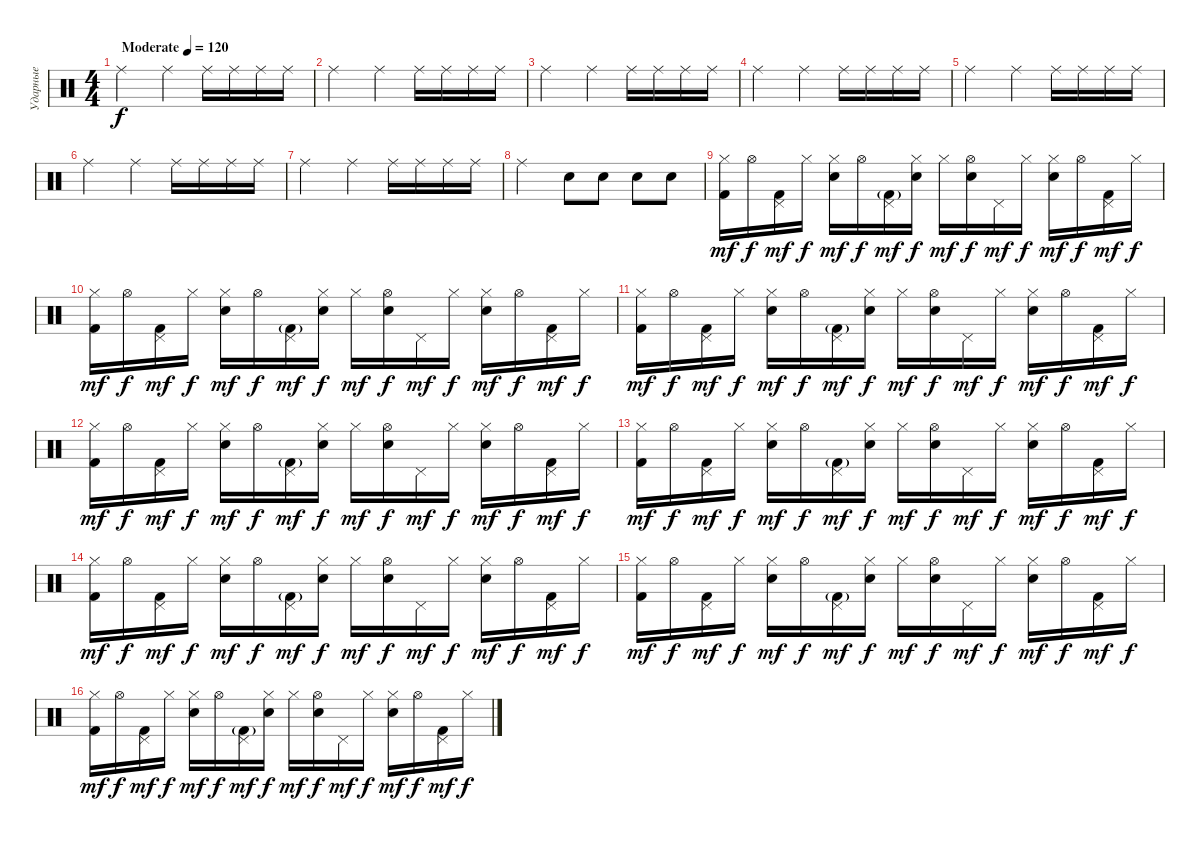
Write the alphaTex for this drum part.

\track ("Ударные" "Ударные") {instrument percussion}
\staff {score}
\articulation defaults
\ts (4 4)
\tempo (120 "Moderate")
\clef neutral
\ks c "Ride (middle)".2{dy f} "Ride (middle)".4 "Ride (middle)".16 "Ride (middle)".16 "Ride (middle)".16 "Ride (middle)".16
|
"Ride (middle)".2 "Ride (middle)".4 "Ride (middle)".16 "Ride (middle)".16 "Ride (middle)".16 "Ride (middle)".16 |
"Ride (middle)".2 "Ride (middle)".4 "Ride (middle)".16 "Ride (middle)".16 "Ride (middle)".16 "Ride (middle)".16 |
"Ride (middle)".2 "Ride (middle)".4 "Ride (middle)".16 "Ride (middle)".16 "Ride (middle)".16 "Ride (middle)".16 |
"Ride (middle)".2 "Ride (middle)".4 "Ride (middle)".16 "Ride (middle)".16 "Ride (middle)".16 "Ride (middle)".16 |
"Ride (middle)".2 "Ride (middle)".4 "Ride (middle)".16 "Ride (middle)".16 "Ride (middle)".16 "Ride (middle)".16 |
"Ride (middle)".2 "Ride (middle)".4 "Ride (middle)".16 "Ride (middle)".16 "Ride (middle)".16 "Ride (middle)".16 |
"Ride (middle)".2 "Snare (hit) 2".8 "Snare (hit) 2".8 "Snare (hit) 2".8 "Snare (hit) 2".8 |
("Kick (hit) 2" "Hi-Hat (closed)").16{dy mf} "Hi-Hat (open)".16{dy f} ("Kick (hit) 2" "Pedal Hi-Hat (hit)").16{dy mf} "Hi-Hat (closed)".16{dy f} ("Snare (hit) 2" "Hi-Hat (closed)").16{dy mf} "Hi-Hat (open)".16{dy f} ("Kick (hit) 2"{g} "Pedal Hi-Hat (hit)").16{dy mf} ("Snare (hit) 2" "Hi-Hat (closed)").16{dy f} "Hi-Hat (closed)".16{dy mf} ("Snare (hit) 2" "Hi-Hat (open)").16{dy f} "Pedal Hi-Hat (hit)".16{dy mf} "Hi-Hat (closed)".16{dy f} ("Snare (hit) 2" "Hi-Hat (closed)").16{dy mf} "Hi-Hat (open)".16{dy f} ("Kick (hit) 2" "Pedal Hi-Hat (hit)").16{dy mf} "Hi-Hat (closed)".16{dy f} |
("Kick (hit) 2" "Hi-Hat (closed)").16{dy mf} "Hi-Hat (open)".16{dy f} ("Kick (hit) 2" "Pedal Hi-Hat (hit)").16{dy mf} "Hi-Hat (closed)".16{dy f} ("Snare (hit) 2" "Hi-Hat (closed)").16{dy mf} "Hi-Hat (open)".16{dy f} ("Kick (hit) 2"{g} "Pedal Hi-Hat (hit)").16{dy mf} ("Snare (hit) 2" "Hi-Hat (closed)").16{dy f} "Hi-Hat (closed)".16{dy mf} ("Snare (hit) 2" "Hi-Hat (open)").16{dy f} "Pedal Hi-Hat (hit)".16{dy mf} "Hi-Hat (closed)".16{dy f} ("Snare (hit) 2" "Hi-Hat (closed)").16{dy mf} "Hi-Hat (open)".16{dy f} ("Kick (hit) 2" "Pedal Hi-Hat (hit)").16{dy mf} "Hi-Hat (closed)".16{dy f} |
("Kick (hit) 2" "Hi-Hat (closed)").16{dy mf} "Hi-Hat (open)".16{dy f} ("Kick (hit) 2" "Pedal Hi-Hat (hit)").16{dy mf} "Hi-Hat (closed)".16{dy f} ("Snare (hit) 2" "Hi-Hat (closed)").16{dy mf} "Hi-Hat (open)".16{dy f} ("Kick (hit) 2"{g} "Pedal Hi-Hat (hit)").16{dy mf} ("Snare (hit) 2" "Hi-Hat (closed)").16{dy f} "Hi-Hat (closed)".16{dy mf} ("Snare (hit) 2" "Hi-Hat (open)").16{dy f} "Pedal Hi-Hat (hit)".16{dy mf} "Hi-Hat (closed)".16{dy f} ("Snare (hit) 2" "Hi-Hat (closed)").16{dy mf} "Hi-Hat (open)".16{dy f} ("Kick (hit) 2" "Pedal Hi-Hat (hit)").16{dy mf} "Hi-Hat (closed)".16{dy f} |
("Kick (hit) 2" "Hi-Hat (closed)").16{dy mf} "Hi-Hat (open)".16{dy f} ("Kick (hit) 2" "Pedal Hi-Hat (hit)").16{dy mf} "Hi-Hat (closed)".16{dy f} ("Snare (hit) 2" "Hi-Hat (closed)").16{dy mf} "Hi-Hat (open)".16{dy f} ("Kick (hit) 2"{g} "Pedal Hi-Hat (hit)").16{dy mf} ("Snare (hit) 2" "Hi-Hat (closed)").16{dy f} "Hi-Hat (closed)".16{dy mf} ("Snare (hit) 2" "Hi-Hat (open)").16{dy f} "Pedal Hi-Hat (hit)".16{dy mf} "Hi-Hat (closed)".16{dy f} ("Snare (hit) 2" "Hi-Hat (closed)").16{dy mf} "Hi-Hat (open)".16{dy f} ("Kick (hit) 2" "Pedal Hi-Hat (hit)").16{dy mf} "Hi-Hat (closed)".16{dy f} |
("Kick (hit) 2" "Hi-Hat (closed)").16{dy mf} "Hi-Hat (open)".16{dy f} ("Kick (hit) 2" "Pedal Hi-Hat (hit)").16{dy mf} "Hi-Hat (closed)".16{dy f} ("Snare (hit) 2" "Hi-Hat (closed)").16{dy mf} "Hi-Hat (open)".16{dy f} ("Kick (hit) 2"{g} "Pedal Hi-Hat (hit)").16{dy mf} ("Snare (hit) 2" "Hi-Hat (closed)").16{dy f} "Hi-Hat (closed)".16{dy mf} ("Snare (hit) 2" "Hi-Hat (open)").16{dy f} "Pedal Hi-Hat (hit)".16{dy mf} "Hi-Hat (closed)".16{dy f} ("Snare (hit) 2" "Hi-Hat (closed)").16{dy mf} "Hi-Hat (open)".16{dy f} ("Kick (hit) 2" "Pedal Hi-Hat (hit)").16{dy mf} "Hi-Hat (closed)".16{dy f} |
("Kick (hit) 2" "Hi-Hat (closed)").16{dy mf} "Hi-Hat (open)".16{dy f} ("Kick (hit) 2" "Pedal Hi-Hat (hit)").16{dy mf} "Hi-Hat (closed)".16{dy f} ("Snare (hit) 2" "Hi-Hat (closed)").16{dy mf} "Hi-Hat (open)".16{dy f} ("Kick (hit) 2"{g} "Pedal Hi-Hat (hit)").16{dy mf} ("Snare (hit) 2" "Hi-Hat (closed)").16{dy f} "Hi-Hat (closed)".16{dy mf} ("Snare (hit) 2" "Hi-Hat (open)").16{dy f} "Pedal Hi-Hat (hit)".16{dy mf} "Hi-Hat (closed)".16{dy f} ("Snare (hit) 2" "Hi-Hat (closed)").16{dy mf} "Hi-Hat (open)".16{dy f} ("Kick (hit) 2" "Pedal Hi-Hat (hit)").16{dy mf} "Hi-Hat (closed)".16{dy f} |
("Kick (hit) 2" "Hi-Hat (closed)").16{dy mf} "Hi-Hat (open)".16{dy f} ("Kick (hit) 2" "Pedal Hi-Hat (hit)").16{dy mf} "Hi-Hat (closed)".16{dy f} ("Snare (hit) 2" "Hi-Hat (closed)").16{dy mf} "Hi-Hat (open)".16{dy f} ("Kick (hit) 2"{g} "Pedal Hi-Hat (hit)").16{dy mf} ("Snare (hit) 2" "Hi-Hat (closed)").16{dy f} "Hi-Hat (closed)".16{dy mf} ("Snare (hit) 2" "Hi-Hat (open)").16{dy f} "Pedal Hi-Hat (hit)".16{dy mf} "Hi-Hat (closed)".16{dy f} ("Snare (hit) 2" "Hi-Hat (closed)").16{dy mf} "Hi-Hat (open)".16{dy f} ("Kick (hit) 2" "Pedal Hi-Hat (hit)").16{dy mf} "Hi-Hat (closed)".16{dy f} |
("Kick (hit) 2" "Hi-Hat (closed)").16{dy mf} "Hi-Hat (open)".16{dy f} ("Kick (hit) 2" "Pedal Hi-Hat (hit)").16{dy mf} "Hi-Hat (closed)".16{dy f} ("Snare (hit) 2" "Hi-Hat (closed)").16{dy mf} "Hi-Hat (open)".16{dy f} ("Kick (hit) 2"{g} "Pedal Hi-Hat (hit)").16{dy mf} ("Snare (hit) 2" "Hi-Hat (closed)").16{dy f} "Hi-Hat (closed)".16{dy mf} ("Snare (hit) 2" "Hi-Hat (open)").16{dy f} "Pedal Hi-Hat (hit)".16{dy mf} "Hi-Hat (closed)".16{dy f} ("Snare (hit) 2" "Hi-Hat (closed)").16{dy mf} "Hi-Hat (open)".16{dy f} ("Kick (hit) 2" "Pedal Hi-Hat (hit)").16{dy mf} "Hi-Hat (closed)".16{dy f}
